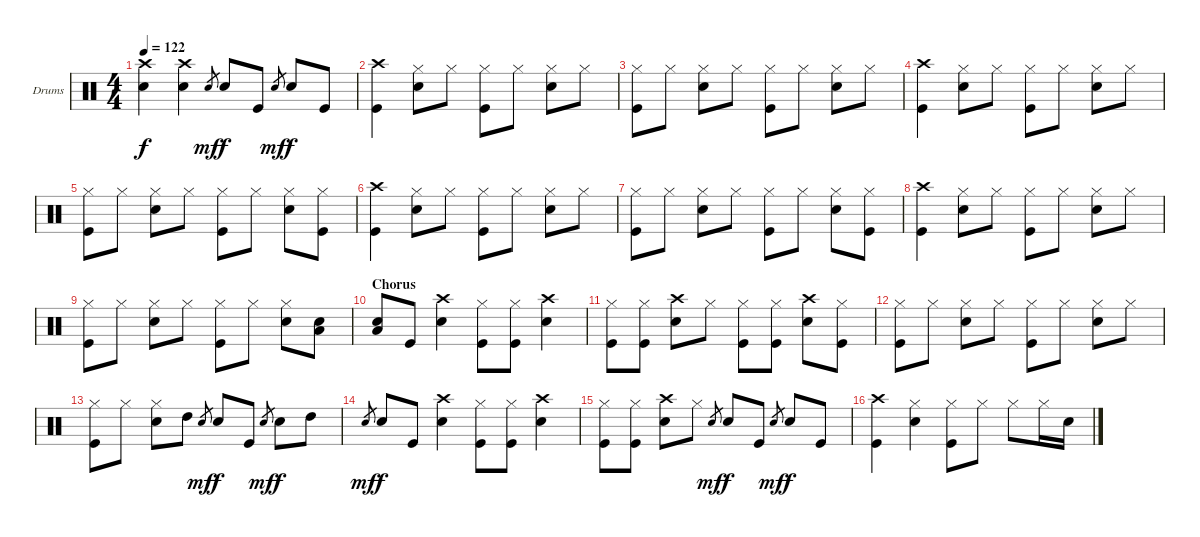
\bracketExtendMode groupsimilarinstruments
\firstSystemTrackNameOrientation horizontal
\otherSystemsTrackNameOrientation horizontal
\track ("Drumkit" "Drums") {instrument percussion}
\staff {score}
\articulation defaults
\ts (4 4)
\tempo 122
\clef neutral
\ks c
("Snare (hit) 2" "Crash high (hit)").4{dy f} ("Snare (hit) 2" "Crash high (hit)").4 "Snare (hit) 2".8{gr dy mf} "Snare (hit) 2".8{dy f} "Kick (hit)".8 "Snare (hit) 2".8{gr dy mf} "Snare (hit) 2".8{dy f} "Kick (hit)".8 |
("Kick (hit)" "Crash high (hit)").4 ("Snare (hit) 2" "Hi-Hat (closed)").8 "Hi-Hat (closed)".8 ("Kick (hit)" "Hi-Hat (closed)").8 "Hi-Hat (closed)".8 ("Snare (hit) 2" "Hi-Hat (closed)").8 "Hi-Hat (closed)".8 |
("Kick (hit)" "Hi-Hat (closed)").8 "Hi-Hat (closed)".8 ("Snare (hit) 2" "Hi-Hat (closed)").8 "Hi-Hat (closed)".8 ("Kick (hit)" "Hi-Hat (closed)").8 "Hi-Hat (closed)".8 ("Snare (hit) 2" "Hi-Hat (closed)").8 "Hi-Hat (closed)".8 |
("Kick (hit)" "Crash high (hit)").4 ("Snare (hit) 2" "Hi-Hat (closed)").8 "Hi-Hat (closed)".8 ("Kick (hit)" "Hi-Hat (closed)").8 "Hi-Hat (closed)".8 ("Snare (hit) 2" "Hi-Hat (closed)").8 "Hi-Hat (closed)".8 |
("Kick (hit)" "Hi-Hat (closed)").8 "Hi-Hat (closed)".8 ("Snare (hit) 2" "Hi-Hat (closed)").8 "Hi-Hat (closed)".8 ("Kick (hit)" "Hi-Hat (closed)").8 "Hi-Hat (closed)".8 ("Snare (hit) 2" "Hi-Hat (closed)").8 ("Kick (hit)" "Hi-Hat (closed)").8 |
("Kick (hit)" "Crash high (hit)").4 ("Snare (hit) 2" "Hi-Hat (closed)").8 "Hi-Hat (closed)".8 ("Kick (hit)" "Hi-Hat (closed)").8 "Hi-Hat (closed)".8 ("Snare (hit) 2" "Hi-Hat (closed)").8 "Hi-Hat (closed)".8 |
("Kick (hit)" "Hi-Hat (closed)").8 "Hi-Hat (closed)".8 ("Snare (hit) 2" "Hi-Hat (closed)").8 "Hi-Hat (closed)".8 ("Kick (hit)" "Hi-Hat (closed)").8 "Hi-Hat (closed)".8 ("Snare (hit) 2" "Hi-Hat (closed)").8 ("Kick (hit)" "Hi-Hat (closed)").8 |
("Kick (hit)" "Crash high (hit)").4 ("Snare (hit) 2" "Hi-Hat (closed)").8 "Hi-Hat (closed)".8 ("Kick (hit)" "Hi-Hat (closed)").8 "Hi-Hat (closed)".8 ("Snare (hit) 2" "Hi-Hat (closed)").8 "Hi-Hat (closed)".8 |
("Kick (hit)" "Hi-Hat (closed)").8 "Hi-Hat (closed)".8 ("Snare (hit) 2" "Hi-Hat (closed)").8 "Hi-Hat (closed)".8 ("Kick (hit)" "Hi-Hat (closed)").8 "Hi-Hat (closed)".8 ("Snare (hit) 2" "Hi-Hat (closed)").8 ("Snare (hit) 2" "Low Tom (hit)").8 |
\section ("" "Chorus")
("Snare (hit) 2" "Low Tom (hit)").8 "Kick (hit)".8 ("Snare (hit) 2" "Crash high (hit)").4 ("Kick (hit)" "Hi-Hat (closed)").8 ("Kick (hit)" "Hi-Hat (closed)").8 ("Snare (hit) 2" "Crash high (hit)").4 |
("Kick (hit)" "Hi-Hat (closed)").8 ("Kick (hit)" "Hi-Hat (closed)").8 ("Snare (hit) 2" "Crash high (hit)").8 "Hi-Hat (closed)".8 ("Kick (hit)" "Hi-Hat (closed)").8 ("Kick (hit)" "Hi-Hat (closed)").8 ("Snare (hit) 2" "Crash high (hit)").8 ("Kick (hit)" "Hi-Hat (closed)").8 |
("Kick (hit)" "Hi-Hat (closed)").8 "Hi-Hat (closed)".8 ("Snare (hit) 2" "Hi-Hat (closed)").8 "Hi-Hat (closed)".8 ("Kick (hit)" "Hi-Hat (closed)").8 "Hi-Hat (closed)".8 ("Snare (hit) 2" "Hi-Hat (closed)").8 "Hi-Hat (closed)".8 |
("Kick (hit)" "Hi-Hat (closed)").8 "Hi-Hat (closed)".8 ("Snare (hit) 2" "Hi-Hat (closed)").8 "High Tom (hit)".8 "Snare (hit) 2".8{gr dy mf} "Snare (hit) 2".8{dy f} "Kick (hit)".8 "Snare (hit) 2".8{gr dy mf} "Snare (hit) 2".8{dy f} "High Tom (hit)".8 |
"Snare (hit) 2".8{gr dy mf} "Snare (hit) 2".8{dy f} "Kick (hit)".8 ("Snare (hit) 2" "Crash high (hit)").4 ("Kick (hit)" "Hi-Hat (closed)").8 ("Kick (hit)" "Hi-Hat (closed)").8 ("Snare (hit) 2" "Crash high (hit)").4 |
("Kick (hit)" "Hi-Hat (closed)").8 ("Kick (hit)" "Hi-Hat (closed)").8 ("Snare (hit) 2" "Crash high (hit)").8 "Hi-Hat (closed)".8 "Snare (hit) 2".8{gr dy mf} "Snare (hit) 2".8{dy f} "Kick (hit)".8 "Snare (hit) 2".8{gr dy mf} "Snare (hit) 2".8{dy f} "Kick (hit)".8 |
("Kick (hit)" "Crash high (hit)").4 ("Snare (hit) 2" "Hi-Hat (closed)").4 ("Kick (hit)" "Hi-Hat (closed)").8 "Hi-Hat (closed)".8 "Hi-Hat (closed)".8 "Hi-Hat (closed)".16 "Snare (hit) 2".16
